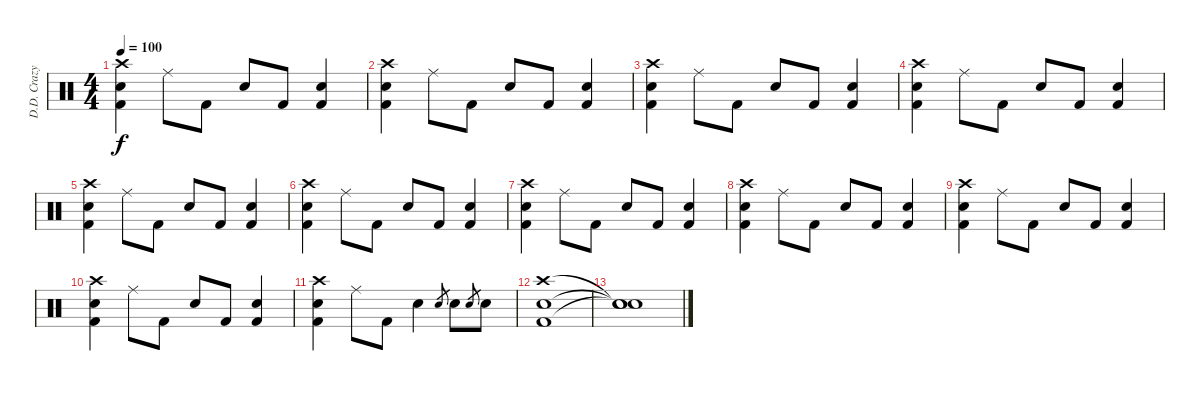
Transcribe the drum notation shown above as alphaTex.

\track ("D.D. Crazy " "D.D. Crazy") {instrument percussion}
\staff {score}
\articulation defaults
\ts (4 4)
\tempo 100
\clef neutral
\ks c
("Crash high (hit)" "Snare (hit) 2" "Kick (hit) 2").4{dy f} "Ride (middle)".8 "Kick (hit) 2".8 "Snare (hit) 2".8 "Kick (hit) 2".8 ("Snare (hit) 2" "Kick (hit) 2").4 |
("Crash high (hit)" "Snare (hit) 2" "Kick (hit) 2").4 "Ride (middle)".8 "Kick (hit) 2".8 "Snare (hit) 2".8 "Kick (hit) 2".8 ("Snare (hit) 2" "Kick (hit) 2").4 |
("Crash high (hit)" "Snare (hit) 2" "Kick (hit) 2").4 "Ride (middle)".8 "Kick (hit) 2".8 "Snare (hit) 2".8 "Kick (hit) 2".8 ("Snare (hit) 2" "Kick (hit) 2").4 |
("Crash high (hit)" "Snare (hit) 2" "Kick (hit) 2").4 "Ride (middle)".8 "Kick (hit) 2".8 "Snare (hit) 2".8 "Kick (hit) 2".8 ("Snare (hit) 2" "Kick (hit) 2").4 |
("Crash high (hit)" "Snare (hit) 2" "Kick (hit) 2").4 "Ride (middle)".8 "Kick (hit) 2".8 "Snare (hit) 2".8 "Kick (hit) 2".8 ("Snare (hit) 2" "Kick (hit) 2").4 |
("Crash high (hit)" "Snare (hit) 2" "Kick (hit) 2").4 "Ride (middle)".8 "Kick (hit) 2".8 "Snare (hit) 2".8 "Kick (hit) 2".8 ("Snare (hit) 2" "Kick (hit) 2").4 |
("Crash high (hit)" "Snare (hit) 2" "Kick (hit) 2").4 "Ride (middle)".8 "Kick (hit) 2".8 "Snare (hit) 2".8 "Kick (hit) 2".8 ("Snare (hit) 2" "Kick (hit) 2").4 |
("Crash high (hit)" "Snare (hit) 2" "Kick (hit) 2").4 "Ride (middle)".8 "Kick (hit) 2".8 "Snare (hit) 2".8 "Kick (hit) 2".8 ("Snare (hit) 2" "Kick (hit) 2").4 |
("Crash high (hit)" "Snare (hit) 2" "Kick (hit) 2").4 "Ride (middle)".8 "Kick (hit) 2".8 "Snare (hit) 2".8 "Kick (hit) 2".8 ("Snare (hit) 2" "Kick (hit) 2").4 |
("Crash high (hit)" "Snare (hit) 2" "Kick (hit) 2").4 "Ride (middle)".8 "Kick (hit) 2".8 "Snare (hit) 2".8 "Kick (hit) 2".8 ("Snare (hit) 2" "Kick (hit) 2").4 |
("Crash high (hit)" "Snare (hit) 2" "Kick (hit) 2").4 "Ride (middle)".8 "Kick (hit) 2".8 "Snare (hit) 2".4 "Snare (hit) 2".8{gr} "Snare (hit) 2".8 "Snare (hit) 2".8{gr} "Snare (hit) 2".8 |
("Crash high (hit)" "Snare (hit) 2" "Kick (hit) 2").1 |
("Snare (hit)"{t} "Snare (hit)"{t} "Snare (hit)"{t}).1
